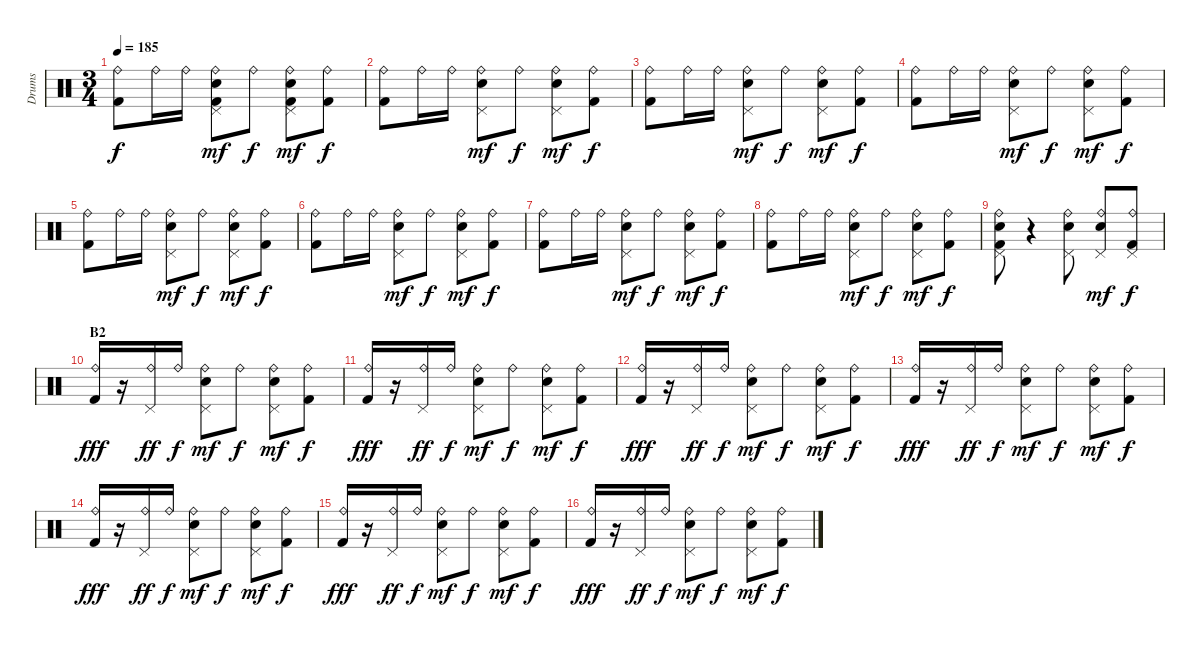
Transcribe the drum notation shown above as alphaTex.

\track ("Drums" "Drums") {instrument percussion}
\staff {score}
\articulation defaults
\ts (3 4)
\tempo 185
\clef neutral
\ks c
("Ride (bell)" "Kick (hit) 2").8{dy f} "Ride (bell)".16 "Ride (bell)".16 ("Ride (bell)" "Pedal Hi-Hat (hit)" "Electric Snare (hit)" "Kick (hit) 2").8{dy mf} "Ride (bell)".8{dy f} ("Ride (bell)" "Pedal Hi-Hat (hit)" "Electric Snare (hit)" "Kick (hit) 2").8{dy mf} ("Ride (bell)" "Kick (hit) 2").8{dy f} |
("Ride (bell)" "Kick (hit) 2").8 "Ride (bell)".16 "Ride (bell)".16 ("Ride (bell)" "Pedal Hi-Hat (hit)" "Electric Snare (hit)").8{dy mf} "Ride (bell)".8{dy f} ("Ride (bell)" "Pedal Hi-Hat (hit)" "Electric Snare (hit)").8{dy mf} ("Ride (bell)" "Kick (hit) 2").8{dy f} |
("Ride (bell)" "Kick (hit) 2").8 "Ride (bell)".16 "Ride (bell)".16 ("Ride (bell)" "Pedal Hi-Hat (hit)" "Electric Snare (hit)").8{dy mf} "Ride (bell)".8{dy f} ("Ride (bell)" "Pedal Hi-Hat (hit)" "Electric Snare (hit)").8{dy mf} ("Ride (bell)" "Kick (hit) 2").8{dy f} |
("Ride (bell)" "Kick (hit) 2").8 "Ride (bell)".16 "Ride (bell)".16 ("Ride (bell)" "Pedal Hi-Hat (hit)" "Electric Snare (hit)").8{dy mf} "Ride (bell)".8{dy f} ("Ride (bell)" "Pedal Hi-Hat (hit)" "Electric Snare (hit)").8{dy mf} ("Ride (bell)" "Kick (hit) 2").8{dy f} |
("Ride (bell)" "Kick (hit) 2").8 "Ride (bell)".16 "Ride (bell)".16 ("Ride (bell)" "Pedal Hi-Hat (hit)" "Electric Snare (hit)").8{dy mf} "Ride (bell)".8{dy f} ("Ride (bell)" "Pedal Hi-Hat (hit)" "Electric Snare (hit)").8{dy mf} ("Ride (bell)" "Kick (hit) 2").8{dy f} |
("Ride (bell)" "Kick (hit) 2").8 "Ride (bell)".16 "Ride (bell)".16 ("Ride (bell)" "Pedal Hi-Hat (hit)" "Electric Snare (hit)").8{dy mf} "Ride (bell)".8{dy f} ("Ride (bell)" "Pedal Hi-Hat (hit)" "Electric Snare (hit)").8{dy mf} ("Ride (bell)" "Kick (hit) 2").8{dy f} |
("Ride (bell)" "Kick (hit) 2").8 "Ride (bell)".16 "Ride (bell)".16 ("Ride (bell)" "Pedal Hi-Hat (hit)" "Electric Snare (hit)").8{dy mf} "Ride (bell)".8{dy f} ("Ride (bell)" "Pedal Hi-Hat (hit)" "Electric Snare (hit)").8{dy mf} ("Ride (bell)" "Kick (hit) 2").8{dy f} |
("Ride (bell)" "Kick (hit) 2").8 "Ride (bell)".16 "Ride (bell)".16 ("Ride (bell)" "Pedal Hi-Hat (hit)" "Electric Snare (hit)").8{dy mf} "Ride (bell)".8{dy f} ("Ride (bell)" "Pedal Hi-Hat (hit)" "Electric Snare (hit)").8{dy mf} ("Ride (bell)" "Kick (hit) 2").8{dy f} |
("Ride (bell)" "Pedal Hi-Hat (hit)" "Electric Snare (hit)" "Kick (hit) 2").8 r.4 ("Ride (bell)" "Pedal Hi-Hat (hit)" "Electric Snare (hit)").8 ("Ride (bell)" "Pedal Hi-Hat (hit)" "Electric Snare (hit)").8{dy mf} ("Ride (bell)" "Pedal Hi-Hat (hit)" "Kick (hit) 2").8{dy f} |
\section ("" "B2")
("Ride (bell)" "Kick (hit) 2").16{dy fff} r.16 ("Ride (bell)" "Pedal Hi-Hat (hit)").16{dy ff} "Ride (bell)".16{dy f} ("Ride (bell)" "Pedal Hi-Hat (hit)" "Electric Snare (hit)").8{dy mf} "Ride (bell)".8{dy f} ("Ride (bell)" "Pedal Hi-Hat (hit)" "Electric Snare (hit)").8{dy mf} ("Ride (bell)" "Kick (hit) 2").8{dy f} |
("Ride (bell)" "Kick (hit) 2").16{dy fff} r.16 ("Ride (bell)" "Pedal Hi-Hat (hit)").16{dy ff} "Ride (bell)".16{dy f} ("Ride (bell)" "Pedal Hi-Hat (hit)" "Electric Snare (hit)").8{dy mf} "Ride (bell)".8{dy f} ("Ride (bell)" "Pedal Hi-Hat (hit)" "Electric Snare (hit)").8{dy mf} ("Ride (bell)" "Kick (hit) 2").8{dy f} |
("Ride (bell)" "Kick (hit) 2").16{dy fff} r.16 ("Ride (bell)" "Pedal Hi-Hat (hit)").16{dy ff} "Ride (bell)".16{dy f} ("Ride (bell)" "Pedal Hi-Hat (hit)" "Electric Snare (hit)").8{dy mf} "Ride (bell)".8{dy f} ("Ride (bell)" "Pedal Hi-Hat (hit)" "Electric Snare (hit)").8{dy mf} ("Ride (bell)" "Kick (hit) 2").8{dy f} |
("Ride (bell)" "Kick (hit) 2").16{dy fff} r.16 ("Ride (bell)" "Pedal Hi-Hat (hit)").16{dy ff} "Ride (bell)".16{dy f} ("Ride (bell)" "Pedal Hi-Hat (hit)" "Electric Snare (hit)").8{dy mf} "Ride (bell)".8{dy f} ("Ride (bell)" "Pedal Hi-Hat (hit)" "Electric Snare (hit)").8{dy mf} ("Ride (bell)" "Kick (hit) 2").8{dy f} |
("Ride (bell)" "Kick (hit) 2").16{dy fff} r.16 ("Ride (bell)" "Pedal Hi-Hat (hit)").16{dy ff} "Ride (bell)".16{dy f} ("Ride (bell)" "Pedal Hi-Hat (hit)" "Electric Snare (hit)").8{dy mf} "Ride (bell)".8{dy f} ("Ride (bell)" "Pedal Hi-Hat (hit)" "Electric Snare (hit)").8{dy mf} ("Ride (bell)" "Kick (hit) 2").8{dy f} |
("Ride (bell)" "Kick (hit) 2").16{dy fff} r.16 ("Ride (bell)" "Pedal Hi-Hat (hit)").16{dy ff} "Ride (bell)".16{dy f} ("Ride (bell)" "Pedal Hi-Hat (hit)" "Electric Snare (hit)").8{dy mf} "Ride (bell)".8{dy f} ("Ride (bell)" "Pedal Hi-Hat (hit)" "Electric Snare (hit)").8{dy mf} ("Ride (bell)" "Kick (hit) 2").8{dy f} |
("Ride (bell)" "Kick (hit) 2").16{dy fff} r.16 ("Ride (bell)" "Pedal Hi-Hat (hit)").16{dy ff} "Ride (bell)".16{dy f} ("Ride (bell)" "Pedal Hi-Hat (hit)" "Electric Snare (hit)").8{dy mf} "Ride (bell)".8{dy f} ("Ride (bell)" "Pedal Hi-Hat (hit)" "Electric Snare (hit)").8{dy mf} ("Ride (bell)" "Kick (hit) 2").8{dy f}
